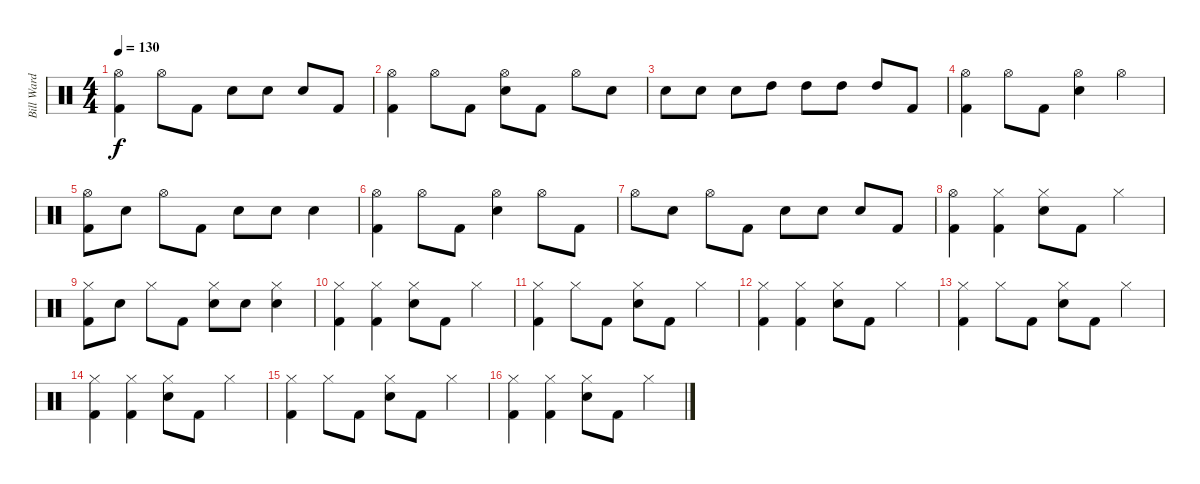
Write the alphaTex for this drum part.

\track ("Bill Ward" "Bill Ward") {instrument percussion}
\staff {score}
\articulation defaults
\ts (4 4)
\tempo 130
\clef neutral
\ks c
("Hi-Hat (open)" "Kick (hit) 2").4{dy f} "Hi-Hat (open)".8 "Kick (hit) 2".8 "Snare (hit) 2".8 "Snare (hit) 2".8 "Snare (hit) 2".8 "Kick (hit) 2".8 |
("Hi-Hat (open)" "Kick (hit) 2").4 "Hi-Hat (open)".8 "Kick (hit) 2".8 ("Hi-Hat (open)" "Snare (hit) 2").8 "Kick (hit) 2".8 "Hi-Hat (open)".8 "Snare (hit) 2".8 |
"Snare (hit) 2".8 "Snare (hit) 2".8 "Snare (hit) 2".8 "High Tom (hit)".8 "High Tom (hit)".8 "High Tom (hit)".8 "High Tom (hit)".8 "Kick (hit) 2".8 |
("Hi-Hat (open)" "Kick (hit) 2").4 "Hi-Hat (open)".8 "Kick (hit) 2".8 ("Hi-Hat (open)" "Snare (hit) 2").4 "Hi-Hat (open)".4 |
("Hi-Hat (open)" "Kick (hit) 2").8 "Snare (hit) 2".8 "Hi-Hat (open)".8 "Kick (hit) 2".8 "Snare (hit) 2".8 "Snare (hit) 2".8 "Snare (hit) 2".4 |
("Hi-Hat (open)" "Kick (hit) 2").4 "Hi-Hat (open)".8 "Kick (hit) 2".8 ("Hi-Hat (open)" "Snare (hit) 2").4 "Hi-Hat (open)".8 "Kick (hit) 2".8 |
"Hi-Hat (open)".8 "Snare (hit) 2".8 "Hi-Hat (open)".8 "Kick (hit) 2".8 "Snare (hit) 2".8 "Snare (hit) 2".8 "Snare (hit) 2".8 "Kick (hit) 2".8 |
("Hi-Hat (open)" "Kick (hit) 2").4 ("Hi-Hat (closed)" "Kick (hit) 2").4 ("Hi-Hat (closed)" "Snare (hit) 2").8 "Kick (hit) 2".8 "Hi-Hat (closed)".4 |
("Hi-Hat (closed)" "Kick (hit) 2").8 "Snare (hit) 2".8 "Hi-Hat (closed)".8 "Kick (hit) 2".8 ("Hi-Hat (closed)" "Snare (hit) 2").8 "Snare (hit) 2".8 ("Hi-Hat (closed)" "Snare (hit) 2").4 |
("Hi-Hat (closed)" "Kick (hit) 2").4 ("Hi-Hat (closed)" "Kick (hit) 2").4 ("Hi-Hat (closed)" "Snare (hit) 2").8 "Kick (hit) 2".8 "Hi-Hat (closed)".4 |
("Hi-Hat (closed)" "Kick (hit) 2").4 "Hi-Hat (closed)".8 "Kick (hit) 2".8 ("Hi-Hat (closed)" "Snare (hit) 2").8 "Kick (hit) 2".8 "Hi-Hat (closed)".4 |
("Hi-Hat (closed)" "Kick (hit) 2").4 ("Hi-Hat (closed)" "Kick (hit) 2").4 ("Hi-Hat (closed)" "Snare (hit) 2").8 "Kick (hit) 2".8 "Hi-Hat (closed)".4 |
("Hi-Hat (closed)" "Kick (hit) 2").4 "Hi-Hat (closed)".8 "Kick (hit) 2".8 ("Hi-Hat (closed)" "Snare (hit) 2").8 "Kick (hit) 2".8 "Hi-Hat (closed)".4 |
("Hi-Hat (closed)" "Kick (hit) 2").4 ("Hi-Hat (closed)" "Kick (hit) 2").4 ("Hi-Hat (closed)" "Snare (hit) 2").8 "Kick (hit) 2".8 "Hi-Hat (closed)".4 |
("Hi-Hat (closed)" "Kick (hit) 2").4 "Hi-Hat (closed)".8 "Kick (hit) 2".8 ("Hi-Hat (closed)" "Snare (hit) 2").8 "Kick (hit) 2".8 "Hi-Hat (closed)".4 |
("Hi-Hat (closed)" "Kick (hit) 2").4 ("Hi-Hat (closed)" "Kick (hit) 2").4 ("Hi-Hat (closed)" "Snare (hit) 2").8 "Kick (hit) 2".8 "Hi-Hat (closed)".4
